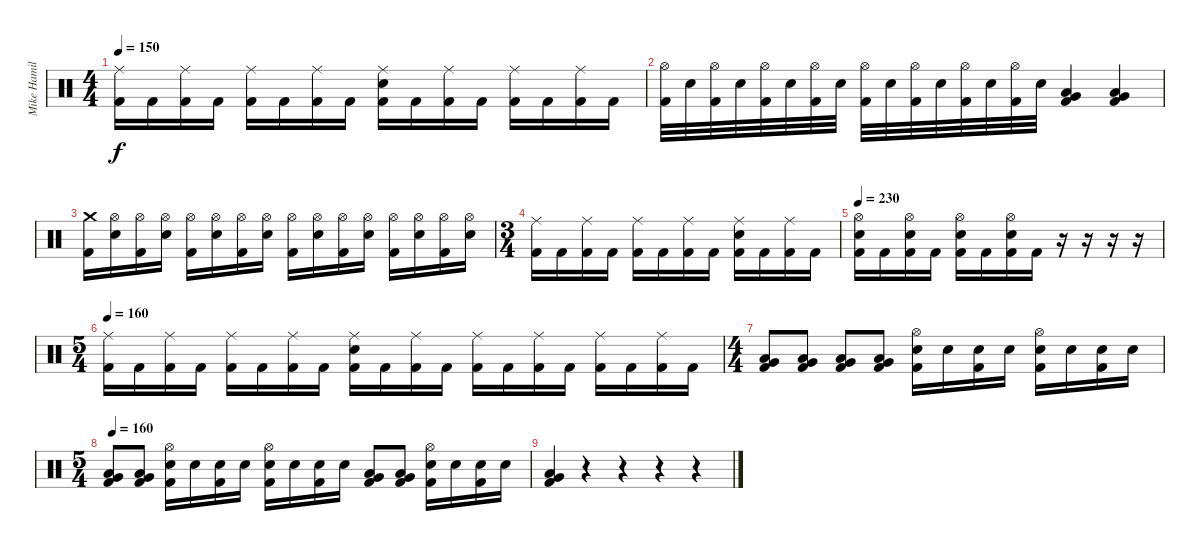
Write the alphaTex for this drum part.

\track ("Mike Hamilton" "Mike Hamil") {instrument percussion}
\staff {score}
\articulation defaults
\ts (4 4)
\tempo 150
\clef neutral
\ks c
("Ride (middle)" "Kick (hit) 2").16{dy f} "Kick (hit) 2".16 ("Ride (middle)" "Kick (hit) 2").16 "Kick (hit) 2".16 ("Ride (middle)" "Kick (hit) 2").16 "Kick (hit) 2".16 ("Ride (middle)" "Kick (hit) 2").16 "Kick (hit) 2".16 ("Ride (middle)" "Electric Snare (hit)" "Kick (hit) 2").16 "Kick (hit) 2".16 ("Ride (middle)" "Kick (hit) 2").16 "Kick (hit) 2".16 ("Ride (middle)" "Kick (hit) 2").16 "Kick (hit) 2".16 ("Ride (middle)" "Kick (hit) 2").16 "Kick (hit) 2".16 |
("Hi-Hat (open)" "Kick (hit) 2").32 "Electric Snare (hit)".32 ("Hi-Hat (open)" "Kick (hit) 2").32 "Electric Snare (hit)".32 ("Hi-Hat (open)" "Kick (hit) 2").32 "Electric Snare (hit)".32 ("Hi-Hat (open)" "Kick (hit) 2").32 "Electric Snare (hit)".32 ("Hi-Hat (open)" "Kick (hit) 2").32 "Electric Snare (hit)".32 ("Hi-Hat (open)" "Kick (hit) 2").32 "Electric Snare (hit)".32 ("Hi-Hat (open)" "Kick (hit) 2").32 "Electric Snare (hit)".32 ("Hi-Hat (open)" "Kick (hit) 2").32 "Electric Snare (hit)".32 ("Very Low Tom (hit)" "Low Tom (hit)" "Kick (hit) 2").4 ("Very Low Tom (hit)" "Low Tom (hit)" "Kick (hit) 2").4 |
("Crash medium (hit)" "Kick (hit) 2").16 ("Hi-Hat (open)" "Electric Snare (hit)").16 ("Hi-Hat (open)" "Kick (hit) 2").16 ("Hi-Hat (open)" "Electric Snare (hit)").16 ("Hi-Hat (open)" "Kick (hit) 2").16 ("Hi-Hat (open)" "Electric Snare (hit)").16 ("Hi-Hat (open)" "Kick (hit) 2").16 ("Hi-Hat (open)" "Electric Snare (hit)").16 ("Hi-Hat (open)" "Kick (hit) 2").16 ("Hi-Hat (open)" "Electric Snare (hit)").16 ("Hi-Hat (open)" "Kick (hit) 2").16 ("Hi-Hat (open)" "Electric Snare (hit)").16 ("Hi-Hat (open)" "Kick (hit) 2").16 ("Hi-Hat (open)" "Electric Snare (hit)").16 ("Hi-Hat (open)" "Kick (hit) 2").16 ("Hi-Hat (open)" "Electric Snare (hit)").16 |
\ts (3 4)
("Ride (middle)" "Kick (hit) 2").16 "Kick (hit) 2".16 ("Ride (middle)" "Kick (hit) 2").16 "Kick (hit) 2".16 ("Ride (middle)" "Kick (hit) 2").16 "Kick (hit) 2".16 ("Ride (middle)" "Kick (hit) 2").16 "Kick (hit) 2".16 ("Ride (middle)" "Electric Snare (hit)" "Kick (hit) 2").16 "Kick (hit) 2".16 ("Ride (middle)" "Kick (hit) 2").16 "Kick (hit) 2".16 |
\tempo 230
("Hi-Hat (open)" "Electric Snare (hit)" "Kick (hit) 2").16 "Kick (hit) 2".16 ("Hi-Hat (open)" "Electric Snare (hit)" "Kick (hit) 2").16 "Kick (hit) 2".16 ("Hi-Hat (open)" "Electric Snare (hit)" "Kick (hit) 2").16 "Kick (hit) 2".16 ("Hi-Hat (open)" "Electric Snare (hit)" "Kick (hit) 2").16 "Kick (hit) 2".16 r.16 r.16 r.16 r.16 |
\ts (5 4)
\tempo 160
("Ride (middle)" "Kick (hit) 2").16 "Kick (hit) 2".16 ("Ride (middle)" "Kick (hit) 2").16 "Kick (hit) 2".16 ("Ride (middle)" "Kick (hit) 2").16 "Kick (hit) 2".16 ("Ride (middle)" "Kick (hit) 2").16 "Kick (hit) 2".16 ("Ride (middle)" "Electric Snare (hit)" "Kick (hit) 2").16 "Kick (hit) 2".16 ("Ride (middle)" "Kick (hit) 2").16 "Kick (hit) 2".16 ("Ride (middle)" "Kick (hit) 2").16 "Kick (hit) 2".16 ("Ride (middle)" "Kick (hit) 2").16 "Kick (hit) 2".16 ("Ride (middle)" "Kick (hit) 2").16 "Kick (hit) 2".16 ("Ride (middle)" "Kick (hit) 2").16 "Kick (hit) 2".16 |
\ts (4 4)
("Low Tom (hit)" "Very Low Tom (hit)" "Kick (hit) 2").8 ("Low Tom (hit)" "Very Low Tom (hit)" "Kick (hit) 2").8 ("Low Tom (hit)" "Very Low Tom (hit)" "Kick (hit) 2").8 ("Low Tom (hit)" "Very Low Tom (hit)" "Kick (hit) 2").8 ("Hi-Hat (open)" "Electric Snare (hit)" "Kick (hit) 2").16 "Electric Snare (hit)".16 ("Electric Snare (hit)" "Kick (hit) 2").16 "Electric Snare (hit)".16 ("Hi-Hat (open)" "Electric Snare (hit)" "Kick (hit) 2").16 "Electric Snare (hit)".16 ("Electric Snare (hit)" "Kick (hit) 2").16 "Electric Snare (hit)".16 |
\ts (5 4)
\tempo 160
("Low Tom (hit)" "Very Low Tom (hit)" "Kick (hit) 2").8 ("Low Tom (hit)" "Very Low Tom (hit)" "Kick (hit) 2").8 ("Hi-Hat (open)" "Electric Snare (hit)" "Kick (hit) 2").16 "Electric Snare (hit)".16 ("Electric Snare (hit)" "Kick (hit) 2").16 "Electric Snare (hit)".16 ("Hi-Hat (open)" "Electric Snare (hit)" "Kick (hit) 2").16 "Electric Snare (hit)".16 ("Electric Snare (hit)" "Kick (hit) 2").16 "Electric Snare (hit)".16 ("Low Tom (hit)" "Very Low Tom (hit)" "Kick (hit) 2").8 ("Low Tom (hit)" "Very Low Tom (hit)" "Kick (hit) 2").8 ("Hi-Hat (open)" "Electric Snare (hit)" "Kick (hit) 2").16 "Electric Snare (hit)".16 ("Electric Snare (hit)" "Kick (hit) 2").16 "Electric Snare (hit)".16 |
("Low Tom (hit)" "Very Low Tom (hit)" "Kick (hit) 2").4 r.4 r.4 r.4 r.4
